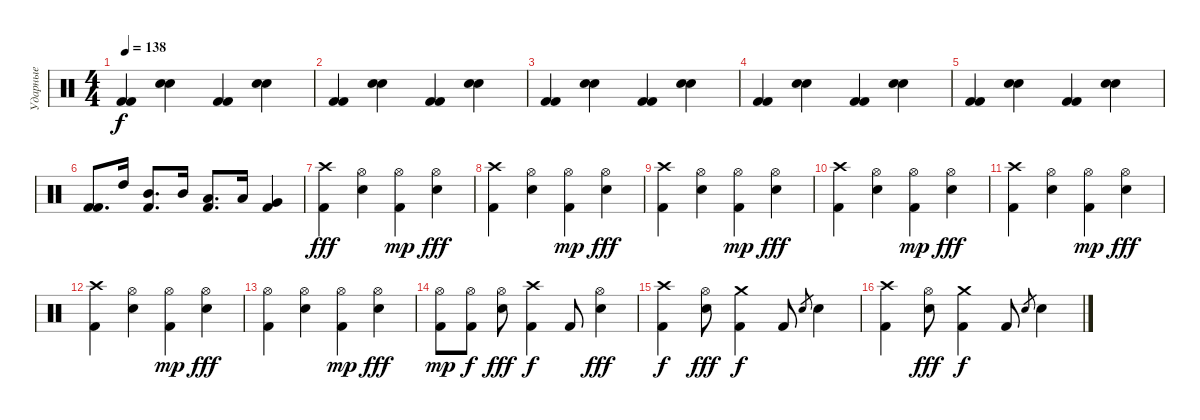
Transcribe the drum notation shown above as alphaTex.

\track ("Ударные" "Ударные") {instrument percussion}
\staff {score}
\articulation defaults
\ts (4 4)
\tempo 138
\clef neutral
\ks c
("Kick (hit) 2" "Kick (hit) 2").4{dy f} ("Electric Snare (hit)" "Electric Snare (hit)").4 ("Kick (hit) 2" "Kick (hit) 2").4 ("Electric Snare (hit)" "Electric Snare (hit)").4 |
("Kick (hit) 2" "Kick (hit) 2").4 ("Electric Snare (hit)" "Electric Snare (hit)").4 ("Kick (hit) 2" "Kick (hit) 2").4 ("Electric Snare (hit)" "Electric Snare (hit)").4 |
("Kick (hit) 2" "Kick (hit) 2").4 ("Electric Snare (hit)" "Electric Snare (hit)").4 ("Kick (hit) 2" "Kick (hit) 2").4 ("Electric Snare (hit)" "Electric Snare (hit)").4 |
("Kick (hit) 2" "Kick (hit) 2").4 ("Electric Snare (hit)" "Electric Snare (hit)").4 ("Kick (hit) 2" "Kick (hit) 2").4 ("Electric Snare (hit)" "Electric Snare (hit)").4 |
("Kick (hit) 2" "Kick (hit) 2").4 ("Electric Snare (hit)" "Electric Snare (hit)").4 ("Kick (hit) 2" "Kick (hit) 2").4 ("Electric Snare (hit)" "Electric Snare (hit)").4 |
("Kick (hit) 2" "Kick (hit) 2").8{d} "High Tom (hit)".16 ("Mid Tom (hit)" "Kick (hit) 2").8{d} "Mid Tom (hit)".16 ("Low Tom (hit)" "Kick (hit) 2").8{d} "Low Tom (hit)".16 ("Very Low Tom (hit)" "Kick (hit) 2").4 |
("Crash high (hit)" "Kick (hit) 2").4{dy fff} ("Hi-Hat (open)" "Electric Snare (hit)").4 ("Hi-Hat (open)" "Kick (hit) 2").4{dy mp} ("Hi-Hat (open)" "Electric Snare (hit)").4{dy fff} |
("Crash high (hit)" "Kick (hit) 2").4 ("Hi-Hat (open)" "Electric Snare (hit)").4 ("Hi-Hat (open)" "Kick (hit) 2").4{dy mp} ("Hi-Hat (open)" "Electric Snare (hit)").4{dy fff} |
("Crash high (hit)" "Kick (hit) 2").4 ("Hi-Hat (open)" "Electric Snare (hit)").4 ("Hi-Hat (open)" "Kick (hit) 2").4{dy mp} ("Hi-Hat (open)" "Electric Snare (hit)").4{dy fff} |
("Crash high (hit)" "Kick (hit) 2").4 ("Hi-Hat (open)" "Electric Snare (hit)").4 ("Hi-Hat (open)" "Kick (hit) 2").4{dy mp} ("Hi-Hat (open)" "Electric Snare (hit)").4{dy fff} |
("Crash high (hit)" "Kick (hit) 2").4 ("Hi-Hat (open)" "Electric Snare (hit)").4 ("Hi-Hat (open)" "Kick (hit) 2").4{dy mp} ("Hi-Hat (open)" "Electric Snare (hit)").4{dy fff} |
("Crash high (hit)" "Kick (hit) 2").4 ("Hi-Hat (open)" "Electric Snare (hit)").4 ("Hi-Hat (open)" "Kick (hit) 2").4{dy mp} ("Hi-Hat (open)" "Electric Snare (hit)").4{dy fff} |
("Hi-Hat (open)" "Kick (hit) 2").4 ("Hi-Hat (open)" "Electric Snare (hit)").4 ("Hi-Hat (open)" "Kick (hit) 2").4{dy mp} ("Hi-Hat (open)" "Electric Snare (hit)").4{dy fff} |
("Hi-Hat (open)" "Kick (hit) 2").8{dy mp} ("Hi-Hat (open)" "Kick (hit) 2").8{dy f} ("Hi-Hat (open)" "Electric Snare (hit)").8{dy fff} ("Crash high (hit)" "Kick (hit) 2").4{dy f} "Kick (hit) 2".8 ("Hi-Hat (open)" "Electric Snare (hit)").4{dy fff} |
("Crash high (hit)" "Kick (hit) 2").4{dy f} ("Hi-Hat (open)" "Electric Snare (hit)").8{dy fff} ("Crash medium (hit)" "Kick (hit) 2").4{dy f} "Kick (hit) 2".8 "Electric Snare (hit)".8{gr} "Electric Snare (hit)".4 |
("Crash high (hit)" "Kick (hit) 2").4 ("Hi-Hat (open)" "Electric Snare (hit)").8{dy fff} ("Crash medium (hit)" "Kick (hit) 2").4{dy f} "Kick (hit) 2".8 "Electric Snare (hit)".8{gr} "Electric Snare (hit)".4
